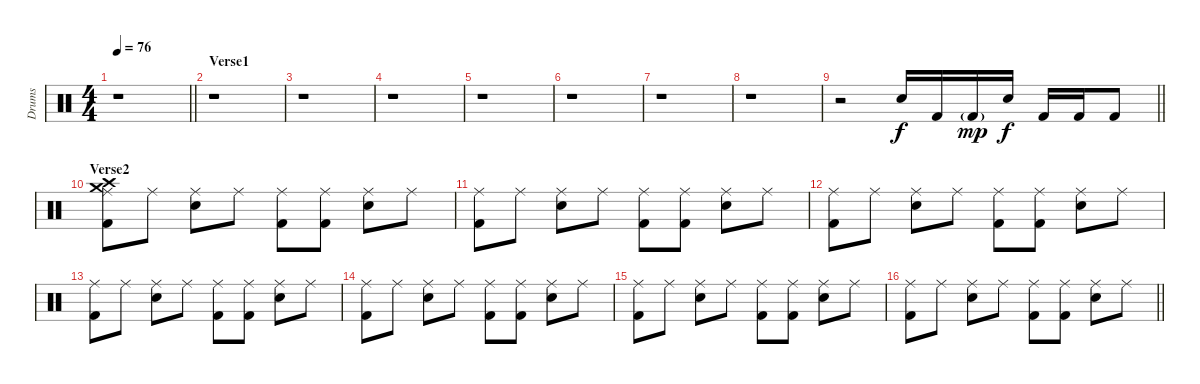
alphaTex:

\track ("Drums" "Drums") {instrument percussion}
\staff {score}
\articulation defaults
\ts (4 4)
\tempo 76
\clef neutral
\barLineRight lightlight
\ks c
r.1{dy f} |
\section ("" "Verse1")
r.1 |
r.1 |
r.1 |
r.1 |
r.1 |
r.1 |
r.1 |
\barLineRight lightlight
r.2 "Electric Snare (hit)".16 "Kick (hit) 2".16 "Kick (hit) 2"{g}.16{dy mp} "Electric Snare (hit)".16{dy f} "Kick (hit) 2".16 "Kick (hit) 2".16 "Kick (hit) 2".8 |
\section ("" "Verse2")
("Ride (middle)" "Crash medium (hit)" "Crash high (hit)" "Kick (hit) 2").8 "Ride (middle)".8 ("Ride (middle)" "Electric Snare (hit)").8 "Ride (middle)".8 ("Ride (middle)" "Kick (hit) 2").8 ("Ride (middle)" "Kick (hit) 2").8 ("Ride (middle)" "Electric Snare (hit)").8 "Ride (middle)".8 |
("Ride (middle)" "Kick (hit) 2").8 "Ride (middle)".8 ("Ride (middle)" "Electric Snare (hit)").8 "Ride (middle)".8 ("Ride (middle)" "Kick (hit) 2").8 ("Ride (middle)" "Kick (hit) 2").8 ("Ride (middle)" "Electric Snare (hit)").8 "Ride (middle)".8 |
("Ride (middle)" "Kick (hit) 2").8 "Ride (middle)".8 ("Ride (middle)" "Electric Snare (hit)").8 "Ride (middle)".8 ("Ride (middle)" "Kick (hit) 2").8 ("Ride (middle)" "Kick (hit) 2").8 ("Ride (middle)" "Electric Snare (hit)").8 "Ride (middle)".8 |
("Ride (middle)" "Kick (hit) 2").8 "Ride (middle)".8 ("Ride (middle)" "Electric Snare (hit)").8 "Ride (middle)".8 ("Ride (middle)" "Kick (hit) 2").8 ("Ride (middle)" "Kick (hit) 2").8 ("Ride (middle)" "Electric Snare (hit)").8 "Ride (middle)".8 |
("Ride (middle)" "Kick (hit) 2").8 "Ride (middle)".8 ("Ride (middle)" "Electric Snare (hit)").8 "Ride (middle)".8 ("Ride (middle)" "Kick (hit) 2").8 ("Ride (middle)" "Kick (hit) 2").8 ("Ride (middle)" "Electric Snare (hit)").8 "Ride (middle)".8 |
("Ride (middle)" "Kick (hit) 2").8 "Ride (middle)".8 ("Ride (middle)" "Electric Snare (hit)").8 "Ride (middle)".8 ("Ride (middle)" "Kick (hit) 2").8 ("Ride (middle)" "Kick (hit) 2").8 ("Ride (middle)" "Electric Snare (hit)").8 "Ride (middle)".8 |
\barLineRight lightlight
("Ride (middle)" "Kick (hit) 2").8 "Ride (middle)".8 ("Ride (middle)" "Electric Snare (hit)").8 "Ride (middle)".8 ("Ride (middle)" "Kick (hit) 2").8 ("Ride (middle)" "Kick (hit) 2").8 ("Ride (middle)" "Electric Snare (hit)").8 "Ride (middle)".8
